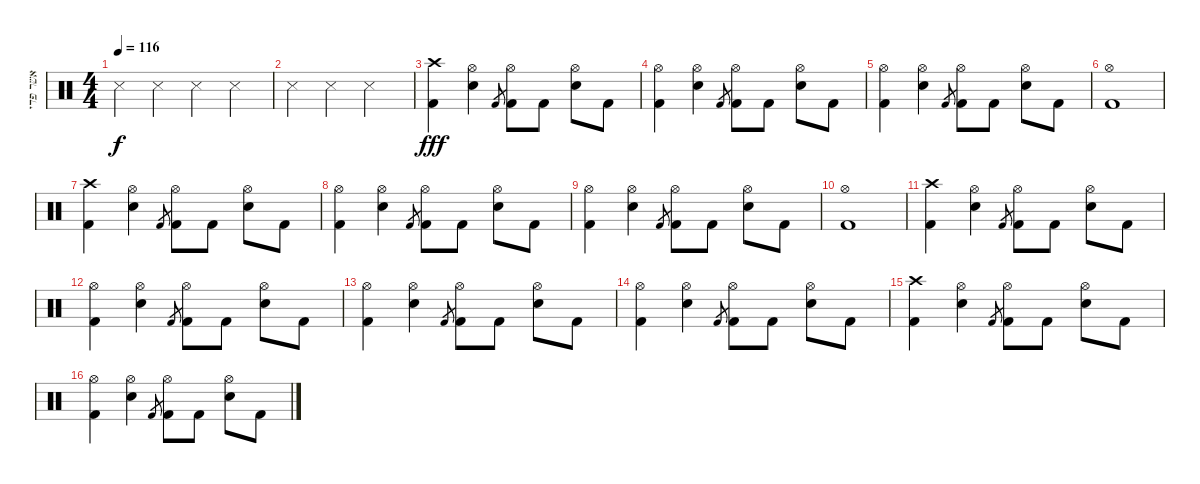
\track ("אשר פדי" "אשר פדי") {instrument percussion}
\staff {score}
\articulation defaults
\ts (4 4)
\tempo 116
\clef neutral
\ks c "Snare (side stick) 3".4{dy f} "Snare (side stick) 3".4 "Snare (side stick) 3".4 "Snare (side stick) 3".4
|
"Snare (side stick) 3".4 "Snare (side stick) 3".4 "Snare (side stick) 3".2 |
("Crash high (hit)" "Kick (hit) 2").4{dy fff} ("Hi-Hat (open)" "Electric Snare (hit)").4 "Kick (hit) 2".8{gr} ("Hi-Hat (open)" "Kick (hit) 2").8 "Kick (hit) 2".8 ("Hi-Hat (open)" "Snare (hit) 2").8 "Kick (hit) 2".8 |
("Hi-Hat (open)" "Kick (hit) 2").4 ("Hi-Hat (open)" "Snare (hit) 2").4 "Kick (hit) 2".8{gr} ("Hi-Hat (open)" "Kick (hit) 2").8 "Kick (hit) 2".8 ("Hi-Hat (open)" "Electric Snare (hit)").8 "Kick (hit) 2".8 |
("Hi-Hat (open)" "Kick (hit) 2").4 ("Hi-Hat (open)" "Electric Snare (hit)").4 "Kick (hit) 2".8{gr} ("Hi-Hat (open)" "Kick (hit) 2").8 "Kick (hit) 2".8 ("Hi-Hat (open)" "Electric Snare (hit)").8 "Kick (hit) 2".8 |
("Hi-Hat (open)" "Kick (hit) 2").1 |
("Crash high (hit)" "Kick (hit) 2").4 ("Hi-Hat (open)" "Electric Snare (hit)").4 "Kick (hit) 2".8{gr} ("Hi-Hat (open)" "Kick (hit) 2").8 "Kick (hit) 2".8 ("Hi-Hat (open)" "Snare (hit) 2").8 "Kick (hit) 2".8 |
("Hi-Hat (open)" "Kick (hit) 2").4 ("Hi-Hat (open)" "Snare (hit) 2").4 "Kick (hit) 2".8{gr} ("Hi-Hat (open)" "Kick (hit) 2").8 "Kick (hit) 2".8 ("Hi-Hat (open)" "Electric Snare (hit)").8 "Kick (hit) 2".8 |
("Hi-Hat (open)" "Kick (hit) 2").4 ("Hi-Hat (open)" "Electric Snare (hit)").4 "Kick (hit) 2".8{gr} ("Hi-Hat (open)" "Kick (hit) 2").8 "Kick (hit) 2".8 ("Hi-Hat (open)" "Electric Snare (hit)").8 "Kick (hit) 2".8 |
("Hi-Hat (open)" "Kick (hit) 2").1 |
("Crash high (hit)" "Kick (hit) 2").4 ("Hi-Hat (open)" "Electric Snare (hit)").4 "Kick (hit) 2".8{gr} ("Hi-Hat (open)" "Kick (hit) 2").8 "Kick (hit) 2".8 ("Hi-Hat (open)" "Snare (hit) 2").8 "Kick (hit) 2".8 |
("Hi-Hat (open)" "Kick (hit) 2").4 ("Hi-Hat (open)" "Snare (hit) 2").4 "Kick (hit) 2".8{gr} ("Hi-Hat (open)" "Kick (hit) 2").8 "Kick (hit) 2".8 ("Hi-Hat (open)" "Electric Snare (hit)").8 "Kick (hit) 2".8 |
("Hi-Hat (open)" "Kick (hit) 2").4 ("Hi-Hat (open)" "Electric Snare (hit)").4 "Kick (hit) 2".8{gr} ("Hi-Hat (open)" "Kick (hit) 2").8 "Kick (hit) 2".8 ("Hi-Hat (open)" "Electric Snare (hit)").8 "Kick (hit) 2".8 |
("Hi-Hat (open)" "Kick (hit) 2").4 ("Hi-Hat (open)" "Electric Snare (hit)").4 "Kick (hit) 2".8{gr} ("Hi-Hat (open)" "Kick (hit) 2").8 "Kick (hit) 2".8 ("Hi-Hat (open)" "Electric Snare (hit)").8 "Kick (hit) 2".8 |
("Crash high (hit)" "Kick (hit) 2").4 ("Hi-Hat (open)" "Electric Snare (hit)").4 "Kick (hit) 2".8{gr} ("Hi-Hat (open)" "Kick (hit) 2").8 "Kick (hit) 2".8 ("Hi-Hat (open)" "Snare (hit) 2").8 "Kick (hit) 2".8 |
("Hi-Hat (open)" "Kick (hit) 2").4 ("Hi-Hat (open)" "Snare (hit) 2").4 "Kick (hit) 2".8{gr} ("Hi-Hat (open)" "Kick (hit) 2").8 "Kick (hit) 2".8 ("Hi-Hat (open)" "Electric Snare (hit)").8 "Kick (hit) 2".8
